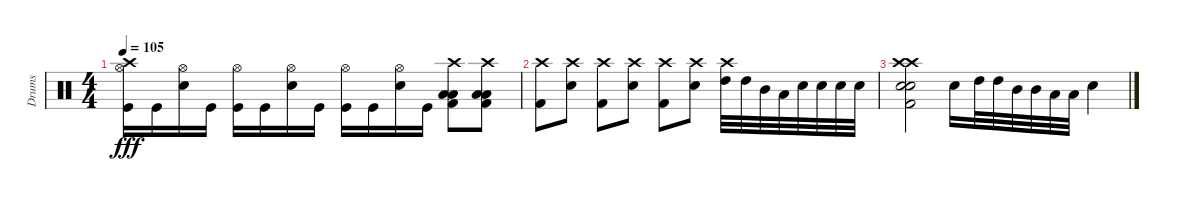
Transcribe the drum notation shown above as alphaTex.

\track ("Drums" "Drums") {instrument percussion}
\staff {score}
\articulation defaults
\ts (4 4)
\tempo 105
\clef neutral
\ks c
("Crash high (hit)" "Hi-Hat (open)" "Kick (hit)").16{dy fff} "Kick (hit)".16 ("Hi-Hat (open)" "Snare (hit) 2").16 "Kick (hit)".16 ("Hi-Hat (open)" "Kick (hit)").16 "Kick (hit)".16 ("Hi-Hat (open)" "Snare (hit) 2").16 "Kick (hit)".16 ("Hi-Hat (open)" "Kick (hit)").16 "Kick (hit)".16 ("Hi-Hat (open)" "Snare (hit) 2").16 "Kick (hit)".16 ("Crash high (hit)" "Low Tom (hit)" "Low Tom (hit)" "Kick (hit) 2").8 ("Crash high (hit)" "Low Tom (hit)" "Low Tom (hit)" "Kick (hit) 2").8 |
("Crash high (hit)" "Kick (hit) 2").8 ("Crash high (hit)" "Snare (hit) 2").8 ("Crash high (hit)" "Kick (hit) 2").8 ("Crash high (hit)" "Snare (hit) 2").8 ("Crash high (hit)" "Kick (hit) 2").8 ("Crash high (hit)" "Snare (hit) 2").8 ("Crash high (hit)" "High Tom (hit)").32 "High Tom (hit)".32 "Mid Tom (hit)".32 "Low Tom (hit)".32 "Snare (hit) 2".32 "Snare (hit) 2".32 "Snare (hit) 2".32 "Snare (hit) 2".32 |
("Crash high (hit)" "Crash high (hit)" "Snare (hit) 2" "Snare (hit) 2" "Kick (hit) 2").2 "Snare (hit) 2".16 "High Tom (hit)".32 "High Tom (hit)".32 "Mid Tom (hit)".32 "Mid Tom (hit)".32 "Low Tom (hit)".32 "Low Tom (hit)".32 "Snare (hit) 2".4
